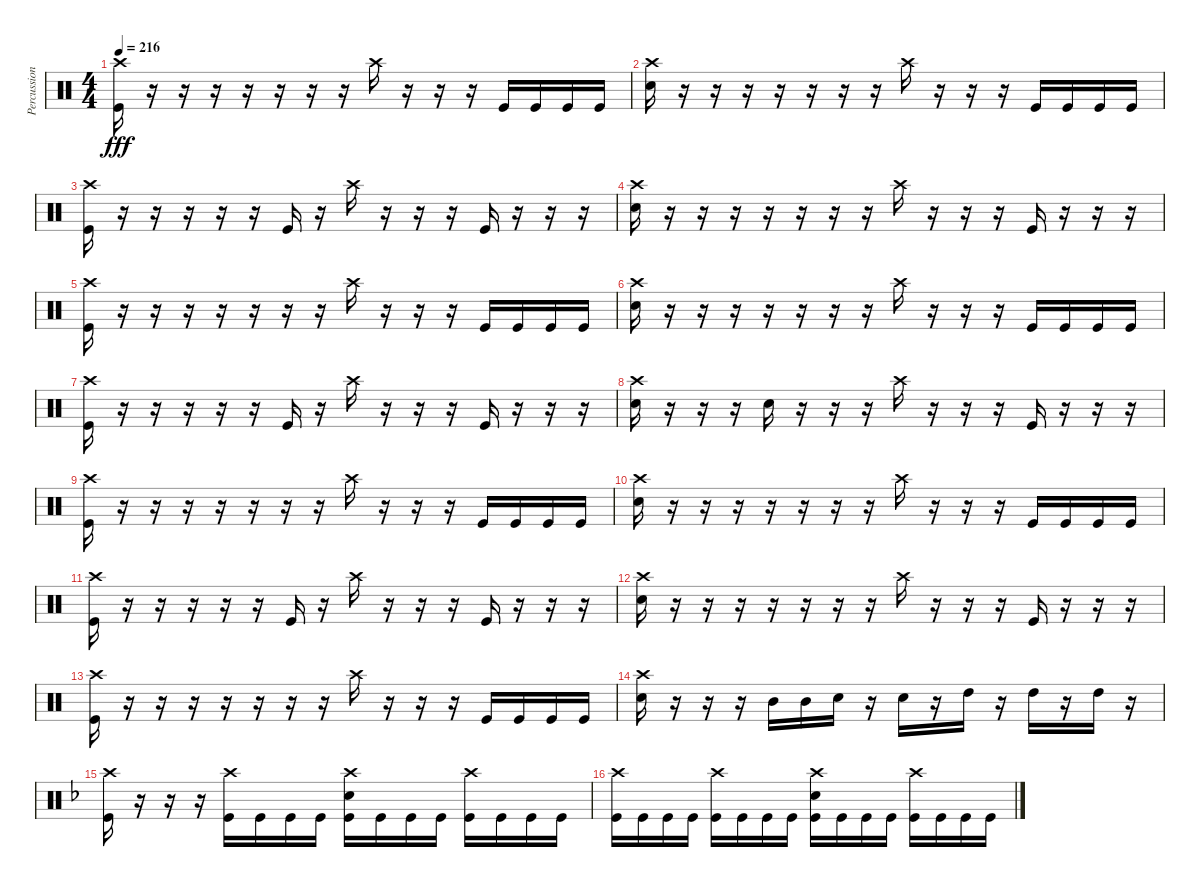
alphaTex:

\track ("Percussion" "Percussion") {instrument percussion}
\staff {score}
\articulation defaults
\ts (4 4)
\tempo 216
\clef neutral
\ks c
("Crash high (hit)" "Kick (hit)").16{dy fff} r.16 r.16 r.16 r.16 r.16 r.16 r.16 "Crash high (hit)".16 r.16 r.16 r.16 "Kick (hit)".16 "Kick (hit)".16 "Kick (hit)".16 "Kick (hit)".16 |
("Crash high (hit)" "Electric Snare (hit)").16 r.16 r.16 r.16 r.16 r.16 r.16 r.16 "Crash high (hit)".16 r.16 r.16 r.16 "Kick (hit)".16 "Kick (hit)".16 "Kick (hit)".16 "Kick (hit)".16 |
("Crash high (hit)" "Kick (hit)").16 r.16 r.16 r.16 r.16 r.16 "Kick (hit)".16 r.16 "Crash high (hit)".16 r.16 r.16 r.16 "Kick (hit)".16 r.16 r.16 r.16 |
("Crash high (hit)" "Electric Snare (hit)").16 r.16 r.16 r.16 r.16 r.16 r.16 r.16 "Crash high (hit)".16 r.16 r.16 r.16 "Kick (hit)".16 r.16 r.16 r.16 |
("Crash high (hit)" "Kick (hit)").16 r.16 r.16 r.16 r.16 r.16 r.16 r.16 "Crash high (hit)".16 r.16 r.16 r.16 "Kick (hit)".16 "Kick (hit)".16 "Kick (hit)".16 "Kick (hit)".16 |
("Crash high (hit)" "Electric Snare (hit)").16 r.16 r.16 r.16 r.16 r.16 r.16 r.16 "Crash high (hit)".16 r.16 r.16 r.16 "Kick (hit)".16 "Kick (hit)".16 "Kick (hit)".16 "Kick (hit)".16 |
("Crash high (hit)" "Kick (hit)").16 r.16 r.16 r.16 r.16 r.16 "Kick (hit)".16 r.16 "Crash high (hit)".16 r.16 r.16 r.16 "Kick (hit)".16 r.16 r.16 r.16 |
("Crash high (hit)" "Electric Snare (hit)").16 r.16 r.16 r.16 "Electric Snare (hit)".16 r.16 r.16 r.16 "Crash high (hit)".16 r.16 r.16 r.16 "Kick (hit)".16 r.16 r.16 r.16 |
("Crash high (hit)" "Kick (hit)").16 r.16 r.16 r.16 r.16 r.16 r.16 r.16 "Crash high (hit)".16 r.16 r.16 r.16 "Kick (hit)".16 "Kick (hit)".16 "Kick (hit)".16 "Kick (hit)".16 |
("Crash high (hit)" "Electric Snare (hit)").16 r.16 r.16 r.16 r.16 r.16 r.16 r.16 "Crash high (hit)".16 r.16 r.16 r.16 "Kick (hit)".16 "Kick (hit)".16 "Kick (hit)".16 "Kick (hit)".16 |
("Crash high (hit)" "Kick (hit)").16 r.16 r.16 r.16 r.16 r.16 "Kick (hit)".16 r.16 "Crash high (hit)".16 r.16 r.16 r.16 "Kick (hit)".16 r.16 r.16 r.16 |
("Crash high (hit)" "Electric Snare (hit)").16 r.16 r.16 r.16 r.16 r.16 r.16 r.16 "Crash high (hit)".16 r.16 r.16 r.16 "Kick (hit)".16 r.16 r.16 r.16 |
("Crash high (hit)" "Kick (hit)").16 r.16 r.16 r.16 r.16 r.16 r.16 r.16 "Crash high (hit)".16 r.16 r.16 r.16 "Kick (hit)".16 "Kick (hit)".16 "Kick (hit)".16 "Kick (hit)".16 |
("Crash high (hit)" "Electric Snare (hit)").16 r.16 r.16 r.16 "Mid Tom (hit)".16 "Mid Tom (hit)".16 "Electric Snare (hit)".16 r.16 "Electric Snare (hit)".16 r.16 "High Tom (hit)".16 r.16 "High Tom (hit)".16 r.16 "High Tom (hit)".16 r.16 |
\ks f
("Crash high (hit)" "Kick (hit)").16 r.16 r.16 r.16 ("Crash high (hit)" "Kick (hit)").16 "Kick (hit)".16 "Kick (hit)".16 "Kick (hit)".16 ("Crash high (hit)" "Electric Snare (hit)" "Kick (hit)").16 "Kick (hit)".16 "Kick (hit)".16 "Kick (hit)".16 ("Crash high (hit)" "Kick (hit)").16 "Kick (hit)".16 "Kick (hit)".16 "Kick (hit)".16 |
("Crash high (hit)" "Kick (hit)").16 "Kick (hit)".16 "Kick (hit)".16 "Kick (hit)".16 ("Crash high (hit)" "Kick (hit)").16 "Kick (hit)".16 "Kick (hit)".16 "Kick (hit)".16 ("Crash high (hit)" "Electric Snare (hit)" "Kick (hit)").16 "Kick (hit)".16 "Kick (hit)".16 "Kick (hit)".16 ("Crash high (hit)" "Kick (hit)").16 "Kick (hit)".16 "Kick (hit)".16 "Kick (hit)".16
